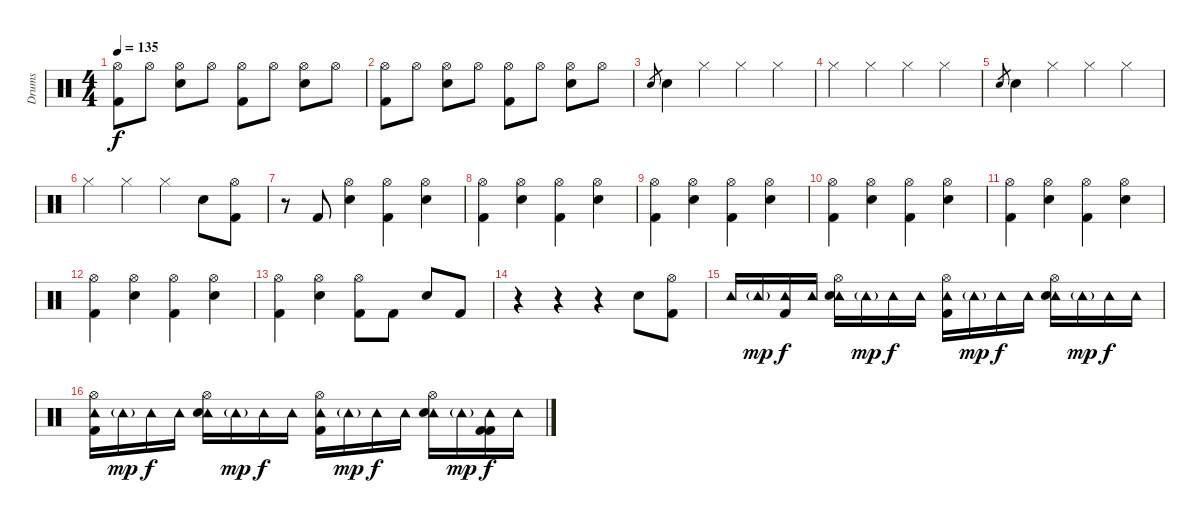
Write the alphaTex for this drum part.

\track ("Drums" "Drums") {instrument percussion}
\staff {score}
\articulation defaults
\ts (4 4)
\tempo 135
\clef neutral
\ks c
("Hi-Hat (open)" "Kick (hit) 2").8{dy f} "Hi-Hat (open)".8 ("Hi-Hat (open)" "Electric Snare (hit)").8 "Hi-Hat (open)".8 ("Hi-Hat (open)" "Kick (hit) 2").8 "Hi-Hat (open)".8 ("Hi-Hat (open)" "Electric Snare (hit)").8 "Hi-Hat (open)".8 |
("Hi-Hat (open)" "Kick (hit) 2").8 "Hi-Hat (open)".8 ("Hi-Hat (open)" "Electric Snare (hit)").8 "Hi-Hat (open)".8 ("Hi-Hat (open)" "Kick (hit) 2").8 "Hi-Hat (open)".8 ("Hi-Hat (open)" "Electric Snare (hit)").8 "Hi-Hat (open)".8 |
"Electric Snare (hit)".8{gr} "Electric Snare (hit)".4 "Hi-Hat (closed)".4 "Hi-Hat (closed)".4 "Hi-Hat (closed)".4 |
"Hi-Hat (closed)".4 "Hi-Hat (closed)".4 "Hi-Hat (closed)".4 "Hi-Hat (closed)".4 |
"Electric Snare (hit)".8{gr} "Electric Snare (hit)".4 "Hi-Hat (closed)".4 "Hi-Hat (closed)".4 "Hi-Hat (closed)".4 |
"Hi-Hat (closed)".4 "Hi-Hat (closed)".4 "Hi-Hat (closed)".4 "Electric Snare (hit)".8 ("Hi-Hat (open)" "Kick (hit) 2").8 |
r.8 "Kick (hit) 2".8 ("Hi-Hat (open)" "Electric Snare (hit)").4 ("Hi-Hat (open)" "Kick (hit) 2").4 ("Hi-Hat (open)" "Electric Snare (hit)").4 |
("Hi-Hat (open)" "Kick (hit) 2").4 ("Hi-Hat (open)" "Electric Snare (hit)").4 ("Hi-Hat (open)" "Kick (hit) 2").4 ("Hi-Hat (open)" "Electric Snare (hit)").4 |
("Hi-Hat (open)" "Kick (hit) 2").4 ("Hi-Hat (open)" "Electric Snare (hit)").4 ("Hi-Hat (open)" "Kick (hit) 2").4 ("Hi-Hat (open)" "Electric Snare (hit)").4 |
("Hi-Hat (open)" "Kick (hit) 2").4 ("Hi-Hat (open)" "Electric Snare (hit)").4 ("Hi-Hat (open)" "Kick (hit) 2").4 ("Hi-Hat (open)" "Electric Snare (hit)").4 |
("Hi-Hat (open)" "Kick (hit) 2").4 ("Hi-Hat (open)" "Electric Snare (hit)").4 ("Hi-Hat (open)" "Kick (hit) 2").4 ("Hi-Hat (open)" "Electric Snare (hit)").4 |
("Hi-Hat (open)" "Kick (hit) 2").4 ("Hi-Hat (open)" "Electric Snare (hit)").4 ("Hi-Hat (open)" "Kick (hit) 2").4 ("Hi-Hat (open)" "Electric Snare (hit)").4 |
("Hi-Hat (open)" "Kick (hit) 2").4 ("Hi-Hat (open)" "Electric Snare (hit)").4 ("Hi-Hat (open)" "Kick (hit) 2").8 "Kick (hit) 2".8 "Electric Snare (hit)".8 "Kick (hit) 2".8 |
r.4 r.4 r.4 "Electric Snare (hit)".8 ("Hi-Hat (open)" "Kick (hit) 2").8 |
"Tambourine (hit)".16 "Tambourine (hit)"{g}.16{dy mp} ("Tambourine (hit)" "Kick (hit) 2").16{dy f} "Tambourine (hit)".16 ("Hi-Hat (open)" "Tambourine (hit)" "Electric Snare (hit)").16 "Tambourine (hit)"{g}.16{dy mp} "Tambourine (hit)".16{dy f} "Tambourine (hit)".16 ("Hi-Hat (open)" "Tambourine (hit)" "Kick (hit) 2").16 "Tambourine (hit)"{g}.16{dy mp} "Tambourine (hit)".16{dy f} "Tambourine (hit)".16 ("Hi-Hat (open)" "Tambourine (hit)" "Electric Snare (hit)").16 "Tambourine (hit)"{g}.16{dy mp} "Tambourine (hit)".16{dy f} "Tambourine (hit)".16 |
("Hi-Hat (open)" "Tambourine (hit)" "Kick (hit) 2").16 "Tambourine (hit)"{g}.16{dy mp} "Tambourine (hit)".16{dy f} "Tambourine (hit)".16 ("Hi-Hat (open)" "Tambourine (hit)" "Electric Snare (hit)").16 "Tambourine (hit)"{g}.16{dy mp} "Tambourine (hit)".16{dy f} "Tambourine (hit)".16 ("Hi-Hat (open)" "Tambourine (hit)" "Kick (hit) 2").16 "Tambourine (hit)"{g}.16{dy mp} "Tambourine (hit)".16{dy f} "Tambourine (hit)".16 ("Hi-Hat (open)" "Tambourine (hit)" "Electric Snare (hit)").16 "Tambourine (hit)"{g}.16{dy mp} ("Tambourine (hit)" "Kick (hit) 2" "Kick (hit) 2").16{dy f} "Tambourine (hit)".16
